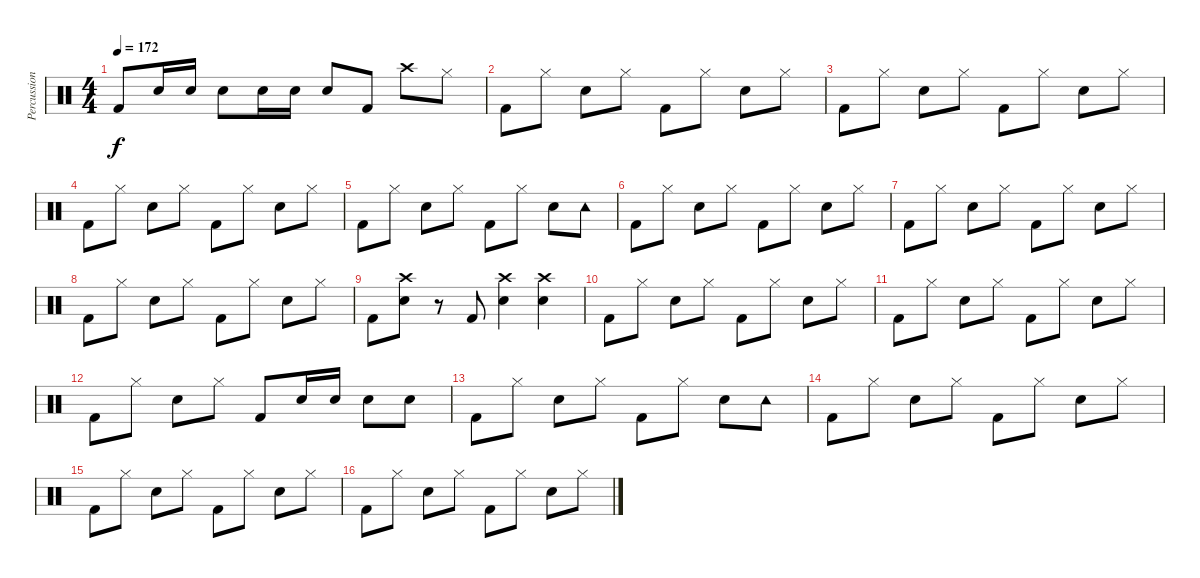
\track ("Percussion" "Percussion") {instrument percussion}
\staff {score}
\articulation defaults
\ts (4 4)
\tempo 172
\clef neutral
\ks c "Kick (hit) 2".8{dy f} "Snare (hit) 2".16 "Snare (hit) 2".16 "Snare (hit) 2".8 "Snare (hit) 2".16 "Snare (hit) 2".16 "Snare (hit) 2".8 "Kick (hit) 2".8 "Crash high (hit)".8 "Hi-Hat (closed)".8
|
"Kick (hit) 2".8 "Hi-Hat (closed)".8 "Snare (hit) 2".8 "Hi-Hat (closed)".8 "Kick (hit) 2".8 "Hi-Hat (closed)".8 "Snare (hit) 2".8 "Hi-Hat (closed)".8 |
"Kick (hit) 2".8 "Hi-Hat (closed)".8 "Snare (hit) 2".8 "Hi-Hat (closed)".8 "Kick (hit) 2".8 "Hi-Hat (closed)".8 "Snare (hit) 2".8 "Hi-Hat (closed)".8 |
"Kick (hit) 2".8 "Hi-Hat (closed)".8 "Snare (hit) 2".8 "Hi-Hat (closed)".8 "Kick (hit) 2".8 "Hi-Hat (closed)".8 "Snare (hit) 2".8 "Hi-Hat (closed)".8 |
"Kick (hit) 2".8 "Hi-Hat (closed)".8 "Snare (hit) 2".8 "Hi-Hat (closed)".8 "Kick (hit) 2".8 "Hi-Hat (closed)".8 "Snare (hit) 2".8 "Tambourine (hit)".8 |
"Kick (hit) 2".8 "Hi-Hat (closed)".8 "Snare (hit) 2".8 "Hi-Hat (closed)".8 "Kick (hit) 2".8 "Hi-Hat (closed)".8 "Snare (hit) 2".8 "Hi-Hat (closed)".8 |
"Kick (hit) 2".8 "Hi-Hat (closed)".8 "Snare (hit) 2".8 "Hi-Hat (closed)".8 "Kick (hit) 2".8 "Hi-Hat (closed)".8 "Snare (hit) 2".8 "Hi-Hat (closed)".8 |
"Kick (hit) 2".8 "Hi-Hat (closed)".8 "Snare (hit) 2".8 "Hi-Hat (closed)".8 "Kick (hit) 2".8 "Hi-Hat (closed)".8 "Snare (hit) 2".8 "Hi-Hat (closed)".8 |
"Kick (hit) 2".8 ("Crash high (hit)" "Snare (hit) 2").8 r.8 "Kick (hit) 2".8 ("Crash high (hit)" "Snare (hit) 2").4 ("Crash high (hit)" "Snare (hit) 2").4 |
"Kick (hit) 2".8 "Hi-Hat (closed)".8 "Snare (hit) 2".8 "Hi-Hat (closed)".8 "Kick (hit) 2".8 "Hi-Hat (closed)".8 "Snare (hit) 2".8 "Hi-Hat (closed)".8 |
"Kick (hit) 2".8 "Hi-Hat (closed)".8 "Snare (hit) 2".8 "Hi-Hat (closed)".8 "Kick (hit) 2".8 "Hi-Hat (closed)".8 "Snare (hit) 2".8 "Hi-Hat (closed)".8 |
"Kick (hit) 2".8 "Hi-Hat (closed)".8 "Snare (hit) 2".8 "Hi-Hat (closed)".8 "Kick (hit) 2".8 "Snare (hit) 2".16 "Snare (hit) 2".16 "Snare (hit) 2".8 "Snare (hit) 2".8 |
"Kick (hit) 2".8 "Hi-Hat (closed)".8 "Snare (hit) 2".8 "Hi-Hat (closed)".8 "Kick (hit) 2".8 "Hi-Hat (closed)".8 "Snare (hit) 2".8 "Tambourine (hit)".8 |
"Kick (hit) 2".8 "Hi-Hat (closed)".8 "Snare (hit) 2".8 "Hi-Hat (closed)".8 "Kick (hit) 2".8 "Hi-Hat (closed)".8 "Snare (hit) 2".8 "Hi-Hat (closed)".8 |
"Kick (hit) 2".8 "Hi-Hat (closed)".8 "Snare (hit) 2".8 "Hi-Hat (closed)".8 "Kick (hit) 2".8 "Hi-Hat (closed)".8 "Snare (hit) 2".8 "Hi-Hat (closed)".8 |
"Kick (hit) 2".8 "Hi-Hat (closed)".8 "Snare (hit) 2".8 "Hi-Hat (closed)".8 "Kick (hit) 2".8 "Hi-Hat (closed)".8 "Snare (hit) 2".8 "Hi-Hat (closed)".8
